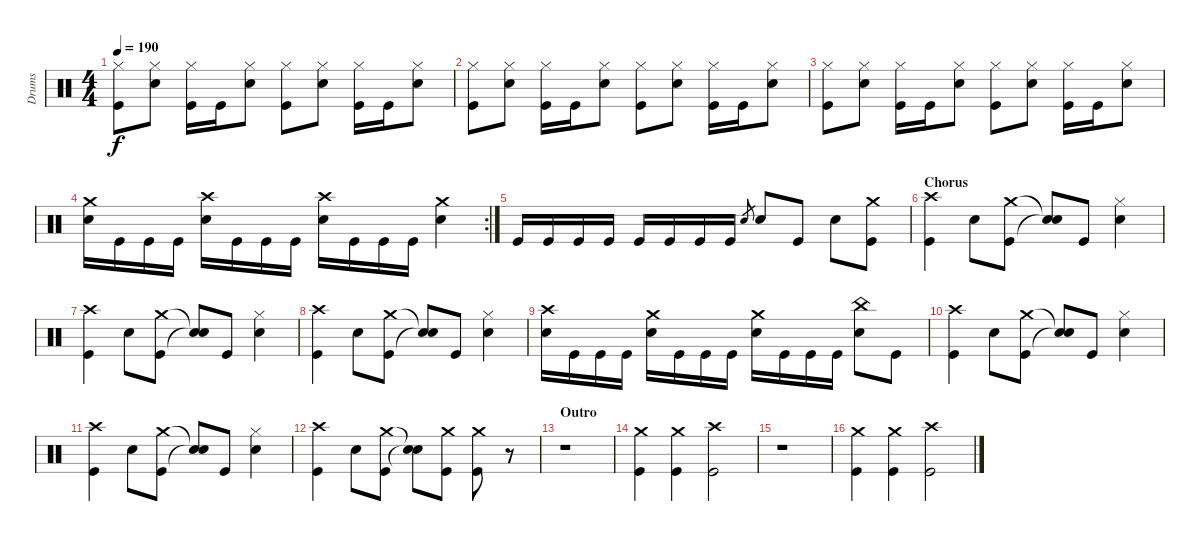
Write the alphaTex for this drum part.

\track ("Drums" "Drums") {instrument percussion}
\staff {score}
\articulation defaults
\ts (4 4)
\tempo 190
\clef neutral
\ks c
("Hi-Hat (closed)" "Kick (hit)").8{dy f} ("Hi-Hat (closed)" "Snare (hit) 2").8 ("Hi-Hat (closed)" "Kick (hit)").16 "Kick (hit)".16 ("Hi-Hat (closed)" "Snare (hit) 2").8 ("Hi-Hat (closed)" "Kick (hit)").8 ("Hi-Hat (closed)" "Snare (hit) 2").8 ("Hi-Hat (closed)" "Kick (hit)").16 "Kick (hit)".16 ("Hi-Hat (closed)" "Snare (hit) 2").8 |
("Hi-Hat (closed)" "Kick (hit)").8 ("Hi-Hat (closed)" "Snare (hit) 2").8 ("Hi-Hat (closed)" "Kick (hit)").16 "Kick (hit)".16 ("Hi-Hat (closed)" "Snare (hit) 2").8 ("Hi-Hat (closed)" "Kick (hit)").8 ("Hi-Hat (closed)" "Snare (hit) 2").8 ("Hi-Hat (closed)" "Kick (hit)").16 "Kick (hit)".16 ("Hi-Hat (closed)" "Snare (hit) 2").8 |
("Hi-Hat (closed)" "Kick (hit)").8 ("Hi-Hat (closed)" "Snare (hit) 2").8 ("Hi-Hat (closed)" "Kick (hit)").16 "Kick (hit)".16 ("Hi-Hat (closed)" "Snare (hit) 2").8 ("Hi-Hat (closed)" "Kick (hit)").8 ("Hi-Hat (closed)" "Snare (hit) 2").8 ("Hi-Hat (closed)" "Kick (hit)").16 "Kick (hit)".16 ("Hi-Hat (closed)" "Snare (hit) 2").8 |
\rc 2
("Crash medium (hit)" "Snare (hit) 2").16 "Kick (hit)".16 "Kick (hit)".16 "Kick (hit)".16 ("Crash high (hit)" "Snare (hit) 2").16 "Kick (hit)".16 "Kick (hit)".16 "Kick (hit)".16 ("Crash high (hit)" "Snare (hit) 2").16 "Kick (hit)".16 "Kick (hit)".16 "Kick (hit)".16 ("Crash medium (hit)" "Snare (hit) 2").4 |
"Kick (hit)".16 "Kick (hit)".16 "Kick (hit)".16 "Kick (hit)".16 "Kick (hit)".16 "Kick (hit)".16 "Kick (hit)".16 "Kick (hit)".16 "Snare (hit) 2".8{gr} "Snare (hit) 2".8 "Kick (hit)".8 "Snare (hit) 2".8 ("Crash medium (hit)" "Kick (hit)").8 |
\section ("" "Chorus")
("Crash high (hit)" "Kick (hit)").4 "Snare (hit) 2".8 ("Crash medium (hit)" "Kick (hit)").8 ("Snare (hit)"{t} "Snare (hit)"{t}).8 "Kick (hit)".8 ("Hi-Hat (closed)" "Snare (hit) 2").4 |
("Crash high (hit)" "Kick (hit)").4 "Snare (hit) 2".8 ("Crash medium (hit)" "Kick (hit)").8 ("Snare (hit)"{t} "Snare (hit)"{t}).8 "Kick (hit)".8 ("Hi-Hat (closed)" "Snare (hit) 2").4 |
("Crash high (hit)" "Kick (hit)").4 "Snare (hit) 2".8 ("Crash medium (hit)" "Kick (hit)").8 ("Snare (hit)"{t} "Snare (hit)"{t}).8 "Kick (hit)".8 ("Hi-Hat (closed)" "Snare (hit) 2").4 |
("Crash high (hit)" "Snare (hit) 2").16 "Kick (hit)".16 "Kick (hit)".16 "Kick (hit)".16 ("Crash medium (hit)" "Snare (hit) 2").16 "Kick (hit)".16 "Kick (hit)".16 "Kick (hit)".16 ("Crash medium (hit)" "Snare (hit) 2").16 "Kick (hit)".16 "Kick (hit)".16 "Kick (hit)".16 ("China (hit)" "Snare (hit) 2").8 "Kick (hit)".8 |
("Crash high (hit)" "Kick (hit)").4 "Snare (hit) 2".8 ("Crash medium (hit)" "Kick (hit)").8 ("Snare (hit)"{t} "Snare (hit)"{t}).8 "Kick (hit)".8 ("Hi-Hat (closed)" "Snare (hit) 2").4 |
("Crash high (hit)" "Kick (hit)").4 "Snare (hit) 2".8 ("Crash medium (hit)" "Kick (hit)").8 ("Snare (hit)"{t} "Snare (hit)"{t}).8 "Kick (hit)".8 ("Hi-Hat (closed)" "Snare (hit) 2").4 |
("Crash high (hit)" "Kick (hit)").4 "Snare (hit) 2".8 ("Crash medium (hit)" "Kick (hit)").8 ("Snare (hit)"{t} "Snare (hit)"{t}).8 ("Crash medium (hit)" "Kick (hit)").8 ("Crash medium (hit)" "Kick (hit)").8 r.8 |
\section ("" "Outro")
r.1 |
("Crash medium (hit)" "Kick (hit)").4 ("Crash medium (hit)" "Kick (hit)").4 ("Crash high (hit)" "Kick (hit)").2 |
r.1 |
("Crash medium (hit)" "Kick (hit)").4 ("Crash medium (hit)" "Kick (hit)").4 ("Crash high (hit)" "Kick (hit)").2
